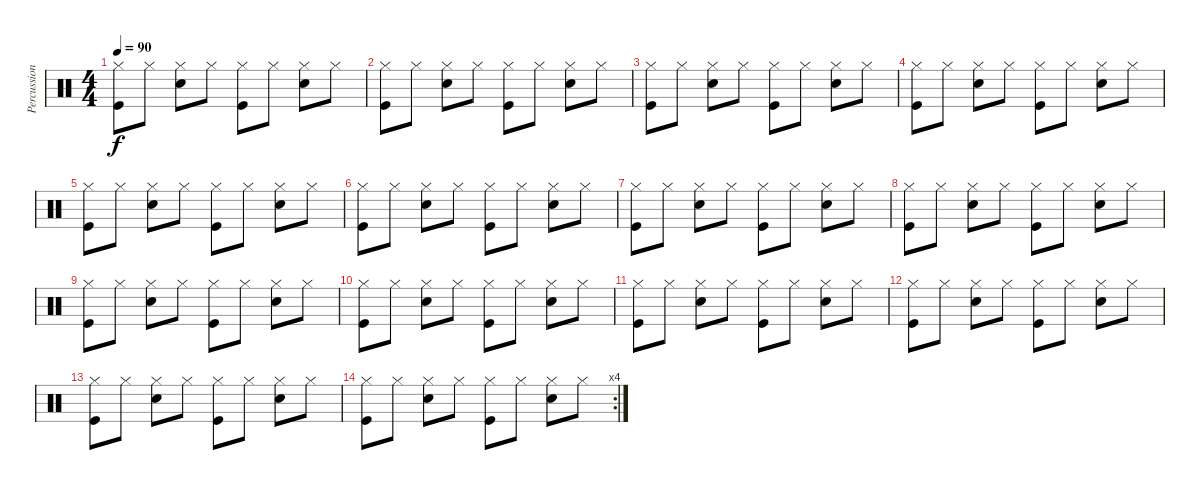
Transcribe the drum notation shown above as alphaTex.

\track ("Percussions" "Percussion") {instrument percussion}
\staff {score}
\articulation defaults
\ts (4 4)
\tempo 90
\clef neutral
\ks c
("Hi-Hat (closed)" "Kick (hit)").8{dy f} "Hi-Hat (closed)".8 ("Hi-Hat (closed)" "Electric Snare (hit)").8 "Hi-Hat (closed)".8 ("Hi-Hat (closed)" "Kick (hit)").8 "Hi-Hat (closed)".8 ("Hi-Hat (closed)" "Electric Snare (hit)").8 "Hi-Hat (closed)".8 |
("Hi-Hat (closed)" "Kick (hit)").8 "Hi-Hat (closed)".8 ("Hi-Hat (closed)" "Electric Snare (hit)").8 "Hi-Hat (closed)".8 ("Hi-Hat (closed)" "Kick (hit)").8 "Hi-Hat (closed)".8 ("Hi-Hat (closed)" "Electric Snare (hit)").8 "Hi-Hat (closed)".8 |
("Hi-Hat (closed)" "Kick (hit)").8 "Hi-Hat (closed)".8 ("Hi-Hat (closed)" "Electric Snare (hit)").8 "Hi-Hat (closed)".8 ("Hi-Hat (closed)" "Kick (hit)").8 "Hi-Hat (closed)".8 ("Hi-Hat (closed)" "Electric Snare (hit)").8 "Hi-Hat (closed)".8 |
("Hi-Hat (closed)" "Kick (hit)").8 "Hi-Hat (closed)".8 ("Hi-Hat (closed)" "Electric Snare (hit)").8 "Hi-Hat (closed)".8 ("Hi-Hat (closed)" "Kick (hit)").8 "Hi-Hat (closed)".8 ("Hi-Hat (closed)" "Electric Snare (hit)").8 "Hi-Hat (closed)".8 |
("Hi-Hat (closed)" "Kick (hit)").8 "Hi-Hat (closed)".8 ("Hi-Hat (closed)" "Electric Snare (hit)").8 "Hi-Hat (closed)".8 ("Hi-Hat (closed)" "Kick (hit)").8 "Hi-Hat (closed)".8 ("Hi-Hat (closed)" "Electric Snare (hit)").8 "Hi-Hat (closed)".8 |
("Hi-Hat (closed)" "Kick (hit)").8 "Hi-Hat (closed)".8 ("Hi-Hat (closed)" "Electric Snare (hit)").8 "Hi-Hat (closed)".8 ("Hi-Hat (closed)" "Kick (hit)").8 "Hi-Hat (closed)".8 ("Hi-Hat (closed)" "Electric Snare (hit)").8 "Hi-Hat (closed)".8 |
("Hi-Hat (closed)" "Kick (hit)").8 "Hi-Hat (closed)".8 ("Hi-Hat (closed)" "Electric Snare (hit)").8 "Hi-Hat (closed)".8 ("Hi-Hat (closed)" "Kick (hit)").8 "Hi-Hat (closed)".8 ("Hi-Hat (closed)" "Electric Snare (hit)").8 "Hi-Hat (closed)".8 |
("Hi-Hat (closed)" "Kick (hit)").8 "Hi-Hat (closed)".8 ("Hi-Hat (closed)" "Electric Snare (hit)").8 "Hi-Hat (closed)".8 ("Hi-Hat (closed)" "Kick (hit)").8 "Hi-Hat (closed)".8 ("Hi-Hat (closed)" "Electric Snare (hit)").8 "Hi-Hat (closed)".8 |
("Hi-Hat (closed)" "Kick (hit)").8 "Hi-Hat (closed)".8 ("Hi-Hat (closed)" "Electric Snare (hit)").8 "Hi-Hat (closed)".8 ("Hi-Hat (closed)" "Kick (hit)").8 "Hi-Hat (closed)".8 ("Hi-Hat (closed)" "Electric Snare (hit)").8 "Hi-Hat (closed)".8 |
("Hi-Hat (closed)" "Kick (hit)").8 "Hi-Hat (closed)".8 ("Hi-Hat (closed)" "Electric Snare (hit)").8 "Hi-Hat (closed)".8 ("Hi-Hat (closed)" "Kick (hit)").8 "Hi-Hat (closed)".8 ("Hi-Hat (closed)" "Electric Snare (hit)").8 "Hi-Hat (closed)".8 |
("Hi-Hat (closed)" "Kick (hit)").8 "Hi-Hat (closed)".8 ("Hi-Hat (closed)" "Electric Snare (hit)").8 "Hi-Hat (closed)".8 ("Hi-Hat (closed)" "Kick (hit)").8 "Hi-Hat (closed)".8 ("Hi-Hat (closed)" "Electric Snare (hit)").8 "Hi-Hat (closed)".8 |
("Hi-Hat (closed)" "Kick (hit)").8 "Hi-Hat (closed)".8 ("Hi-Hat (closed)" "Electric Snare (hit)").8 "Hi-Hat (closed)".8 ("Hi-Hat (closed)" "Kick (hit)").8 "Hi-Hat (closed)".8 ("Hi-Hat (closed)" "Electric Snare (hit)").8 "Hi-Hat (closed)".8 |
("Hi-Hat (closed)" "Kick (hit)").8 "Hi-Hat (closed)".8 ("Hi-Hat (closed)" "Electric Snare (hit)").8 "Hi-Hat (closed)".8 ("Hi-Hat (closed)" "Kick (hit)").8 "Hi-Hat (closed)".8 ("Hi-Hat (closed)" "Electric Snare (hit)").8 "Hi-Hat (closed)".8 |
\rc 4
("Hi-Hat (closed)" "Kick (hit)").8 "Hi-Hat (closed)".8 ("Hi-Hat (closed)" "Electric Snare (hit)").8 "Hi-Hat (closed)".8 ("Hi-Hat (closed)" "Kick (hit)").8 "Hi-Hat (closed)".8 ("Hi-Hat (closed)" "Electric Snare (hit)").8 "Hi-Hat (closed)".8
